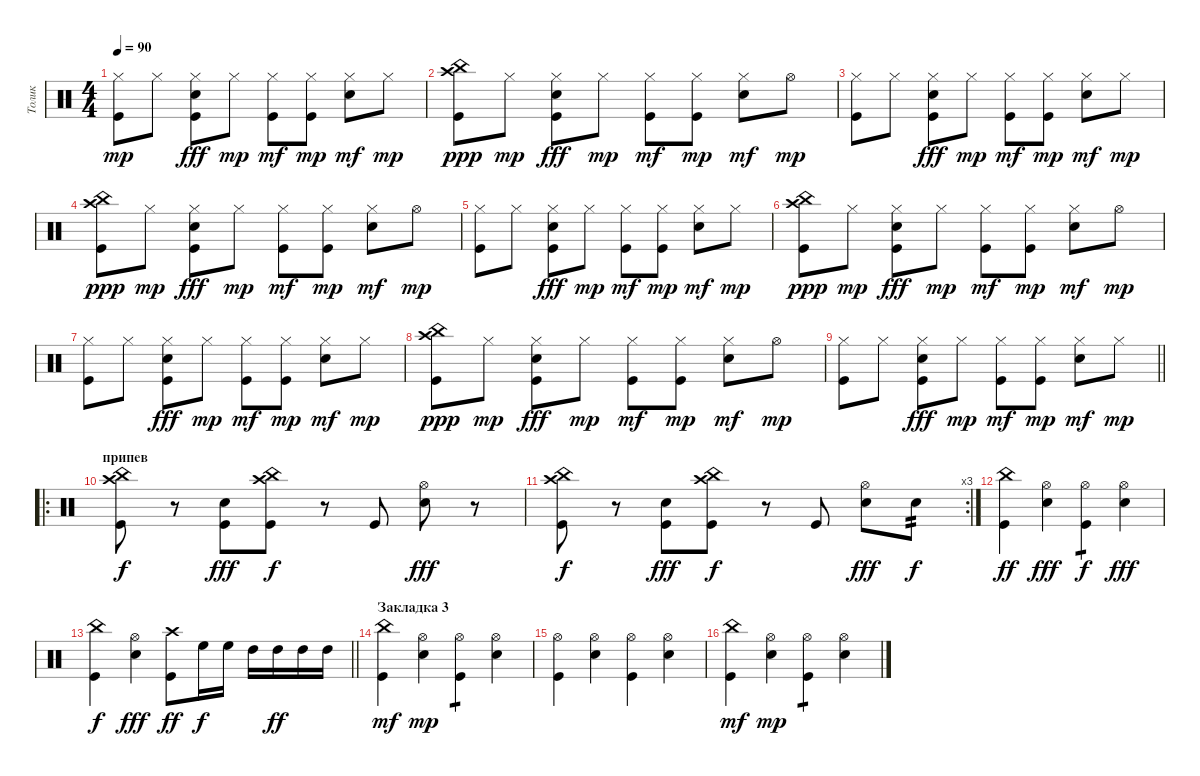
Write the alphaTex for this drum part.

\track ("Толик" "Толик") {instrument percussion}
\staff {score}
\articulation defaults
\ts (4 4)
\tempo 90
\clef neutral
\ks c
("Hi-Hat (closed)" "Kick (hit)").8{dy mp} "Hi-Hat (closed)".8 ("Kick (hit)" "Hi-Hat (closed)" "Snare (hit) 2").8{dy fff} "Hi-Hat (closed)".8{dy mp} ("Kick (hit)" "Hi-Hat (closed)").8{dy mf} ("Kick (hit)" "Hi-Hat (closed)").8{dy mp} ("Snare (hit) 2" "Hi-Hat (closed)").8{dy mf} "Hi-Hat (closed)".8{dy mp} |
("China (hit)" "Kick (hit)" "Crash high (hit)").8{dy ppp} "Hi-Hat (closed)".8{dy mp} ("Kick (hit)" "Hi-Hat (closed)" "Snare (hit) 2").8{dy fff} "Hi-Hat (closed)".8{dy mp} ("Kick (hit)" "Hi-Hat (closed)").8{dy mf} ("Kick (hit)" "Hi-Hat (closed)").8{dy mp} ("Snare (hit) 2" "Hi-Hat (closed)").8{dy mf} "Hi-Hat (open)".8{dy mp} |
("Hi-Hat (closed)" "Kick (hit)").8 "Hi-Hat (closed)".8 ("Kick (hit)" "Hi-Hat (closed)" "Snare (hit) 2").8{dy fff} "Hi-Hat (closed)".8{dy mp} ("Kick (hit)" "Hi-Hat (closed)").8{dy mf} ("Kick (hit)" "Hi-Hat (closed)").8{dy mp} ("Snare (hit) 2" "Hi-Hat (closed)").8{dy mf} "Hi-Hat (closed)".8{dy mp} |
("China (hit)" "Kick (hit)" "Crash high (hit)").8{dy ppp} "Hi-Hat (closed)".8{dy mp} ("Kick (hit)" "Hi-Hat (closed)" "Snare (hit) 2").8{dy fff} "Hi-Hat (closed)".8{dy mp} ("Kick (hit)" "Hi-Hat (closed)").8{dy mf} ("Kick (hit)" "Hi-Hat (closed)").8{dy mp} ("Snare (hit) 2" "Hi-Hat (closed)").8{dy mf} "Hi-Hat (open)".8{dy mp} |
("Hi-Hat (closed)" "Kick (hit)").8 "Hi-Hat (closed)".8 ("Kick (hit)" "Hi-Hat (closed)" "Snare (hit) 2").8{dy fff} "Hi-Hat (closed)".8{dy mp} ("Kick (hit)" "Hi-Hat (closed)").8{dy mf} ("Kick (hit)" "Hi-Hat (closed)").8{dy mp} ("Snare (hit) 2" "Hi-Hat (closed)").8{dy mf} "Hi-Hat (closed)".8{dy mp} |
("China (hit)" "Kick (hit)" "Crash high (hit)").8{dy ppp} "Hi-Hat (closed)".8{dy mp} ("Kick (hit)" "Hi-Hat (closed)" "Snare (hit) 2").8{dy fff} "Hi-Hat (closed)".8{dy mp} ("Kick (hit)" "Hi-Hat (closed)").8{dy mf} ("Kick (hit)" "Hi-Hat (closed)").8{dy mp} ("Snare (hit) 2" "Hi-Hat (closed)").8{dy mf} "Hi-Hat (open)".8{dy mp} |
("Hi-Hat (closed)" "Kick (hit)").8 "Hi-Hat (closed)".8 ("Kick (hit)" "Hi-Hat (closed)" "Snare (hit) 2").8{dy fff} "Hi-Hat (closed)".8{dy mp} ("Kick (hit)" "Hi-Hat (closed)").8{dy mf} ("Kick (hit)" "Hi-Hat (closed)").8{dy mp} ("Snare (hit) 2" "Hi-Hat (closed)").8{dy mf} "Hi-Hat (closed)".8{dy mp} |
("China (hit)" "Kick (hit)" "Crash high (hit)").8{dy ppp} "Hi-Hat (closed)".8{dy mp} ("Kick (hit)" "Hi-Hat (closed)" "Snare (hit) 2").8{dy fff} "Hi-Hat (closed)".8{dy mp} ("Kick (hit)" "Hi-Hat (closed)").8{dy mf} ("Kick (hit)" "Hi-Hat (closed)").8{dy mp} ("Snare (hit) 2" "Hi-Hat (closed)").8{dy mf} "Hi-Hat (open)".8{dy mp} |
\barLineRight lightlight
("Hi-Hat (closed)" "Kick (hit)").8 "Hi-Hat (closed)".8 ("Kick (hit)" "Hi-Hat (closed)" "Snare (hit) 2").8{dy fff} "Hi-Hat (closed)".8{dy mp} ("Kick (hit)" "Hi-Hat (closed)").8{dy mf} ("Kick (hit)" "Hi-Hat (closed)").8{dy mp} ("Snare (hit) 2" "Hi-Hat (closed)").8{dy mf} "Hi-Hat (closed)".8{dy mp} |
\ro
\section ("" "припев")
("Crash high (hit)" "Kick (hit)" "China (hit)").8{dy f} r.8 ("Kick (hit)" "Snare (hit) 2").8{dy fff} ("China (hit)" "Crash high (hit)" "Kick (hit)").8{dy f} r.8 "Kick (hit)".8 ("Hi-Hat (open)" "Snare (hit) 2").8{dy fff} r.8 |
\rc 3
("Crash high (hit)" "Kick (hit)" "China (hit)").8{dy f} r.8 ("Kick (hit)" "Snare (hit) 2").8{dy fff} ("China (hit)" "Crash high (hit)" "Kick (hit)").8{dy f} r.8 "Kick (hit)".8 ("Hi-Hat (open)" "Snare (hit) 2").8{dy fff} "Snare (hit) 2".8{tp 2 dy f} |
("China (hit)" "Kick (hit)").4{dy ff} ("Snare (hit) 2" "Hi-Hat (open)").4{dy fff} ("Kick (hit)" "Hi-Hat (open)").4{tp 1 dy f} ("Snare (hit) 2" "Hi-Hat (open)").4{dy fff} |
\barLineRight lightlight
("China (hit)" "Kick (hit)").4{dy f} ("Snare (hit) 2" "Hi-Hat (open)").4{dy fff} ("Kick (hit)" "Crash high (hit)").8{dy ff} "High Floor Tom (hit)".16{dy f} "High Floor Tom (hit)".16 "High Tom (hit)".16 "High Tom (hit)".16{dy ff} "High Tom (hit)".16 "High Tom (hit)".16 |
\section ("" "Закладка 3")
("China (hit)" "Kick (hit)").4{dy mf} ("Snare (hit) 2" "Hi-Hat (open)").4{dy mp} ("Kick (hit)" "Hi-Hat (open)").4{tp 1} ("Snare (hit) 2" "Hi-Hat (open)").4 |
("Kick (hit)" "Hi-Hat (open)").4 ("Snare (hit) 2" "Hi-Hat (open)").4 ("Kick (hit)" "Hi-Hat (open)").4 ("Snare (hit) 2" "Hi-Hat (open)").4 |
("China (hit)" "Kick (hit)").4{dy mf} ("Snare (hit) 2" "Hi-Hat (open)").4{dy mp} ("Kick (hit)" "Hi-Hat (open)").4{tp 1} ("Snare (hit) 2" "Hi-Hat (open)").4
